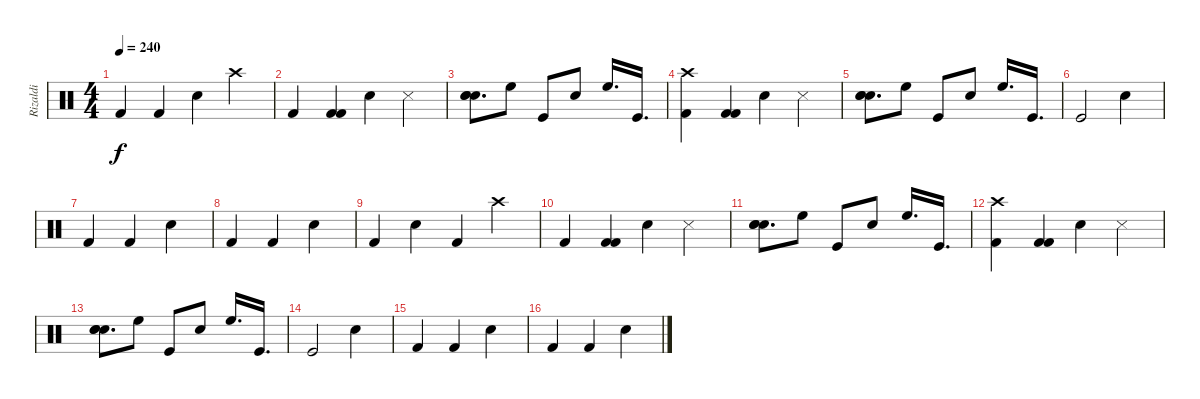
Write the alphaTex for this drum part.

\track ("Rizaldi" "Rizaldi") {instrument percussion}
\staff {score}
\articulation defaults
\ts (4 4)
\tempo 240
\clef neutral
\ks c "Kick (hit) 2".4{dy f} "Kick (hit) 2".4 "Snare (hit) 2".4 "Crash high (hit)".4
|
"Kick (hit) 2".4 ("Kick (hit) 2" "Kick (hit) 2").4 "Snare (hit) 2".4 "Snare (side stick) 3".4 |
("Electric Snare (hit)" "Snare (hit) 2" "Snare (hit) 2").8{d} "High Floor Tom (hit)".8 "Kick (hit)".8 "Snare (hit) 2".8 "High Floor Tom (hit)".16{d} "Kick (hit)".16{d} |
("Kick (hit) 2" "Crash high (hit)").4 ("Kick (hit) 2" "Kick (hit) 2").4 "Snare (hit) 2".4 "Snare (side stick) 3".4 |
("Electric Snare (hit)" "Snare (hit) 2" "Snare (hit) 2").8{d} "High Floor Tom (hit)".8 "Kick (hit)".8 "Snare (hit) 2".8 "High Floor Tom (hit)".16{d} "Kick (hit)".16{d} |
"Kick (hit)".2 "Snare (hit) 2".4 |
"Kick (hit) 2".4 "Kick (hit) 2".4 "Snare (hit) 2".4 |
"Kick (hit) 2".4 "Kick (hit) 2".4 "Snare (hit) 2".4 |
"Kick (hit) 2".4 "Snare (hit) 2".4 "Kick (hit) 2".4 "Crash high (hit)".4 |
"Kick (hit) 2".4 ("Kick (hit) 2" "Kick (hit) 2").4 "Snare (hit) 2".4 "Snare (side stick) 3".4 |
("Electric Snare (hit)" "Snare (hit) 2" "Snare (hit) 2").8{d} "High Floor Tom (hit)".8 "Kick (hit)".8 "Snare (hit) 2".8 "High Floor Tom (hit)".16{d} "Kick (hit)".16{d} |
("Kick (hit) 2" "Crash high (hit)").4 ("Kick (hit) 2" "Kick (hit) 2").4 "Snare (hit) 2".4 "Snare (side stick) 3".4 |
("Electric Snare (hit)" "Snare (hit) 2" "Snare (hit) 2").8{d} "High Floor Tom (hit)".8 "Kick (hit)".8 "Snare (hit) 2".8 "High Floor Tom (hit)".16{d} "Kick (hit)".16{d} |
"Kick (hit)".2 "Snare (hit) 2".4 |
"Kick (hit) 2".4 "Kick (hit) 2".4 "Snare (hit) 2".4 |
"Kick (hit) 2".4 "Kick (hit) 2".4 "Snare (hit) 2".4
